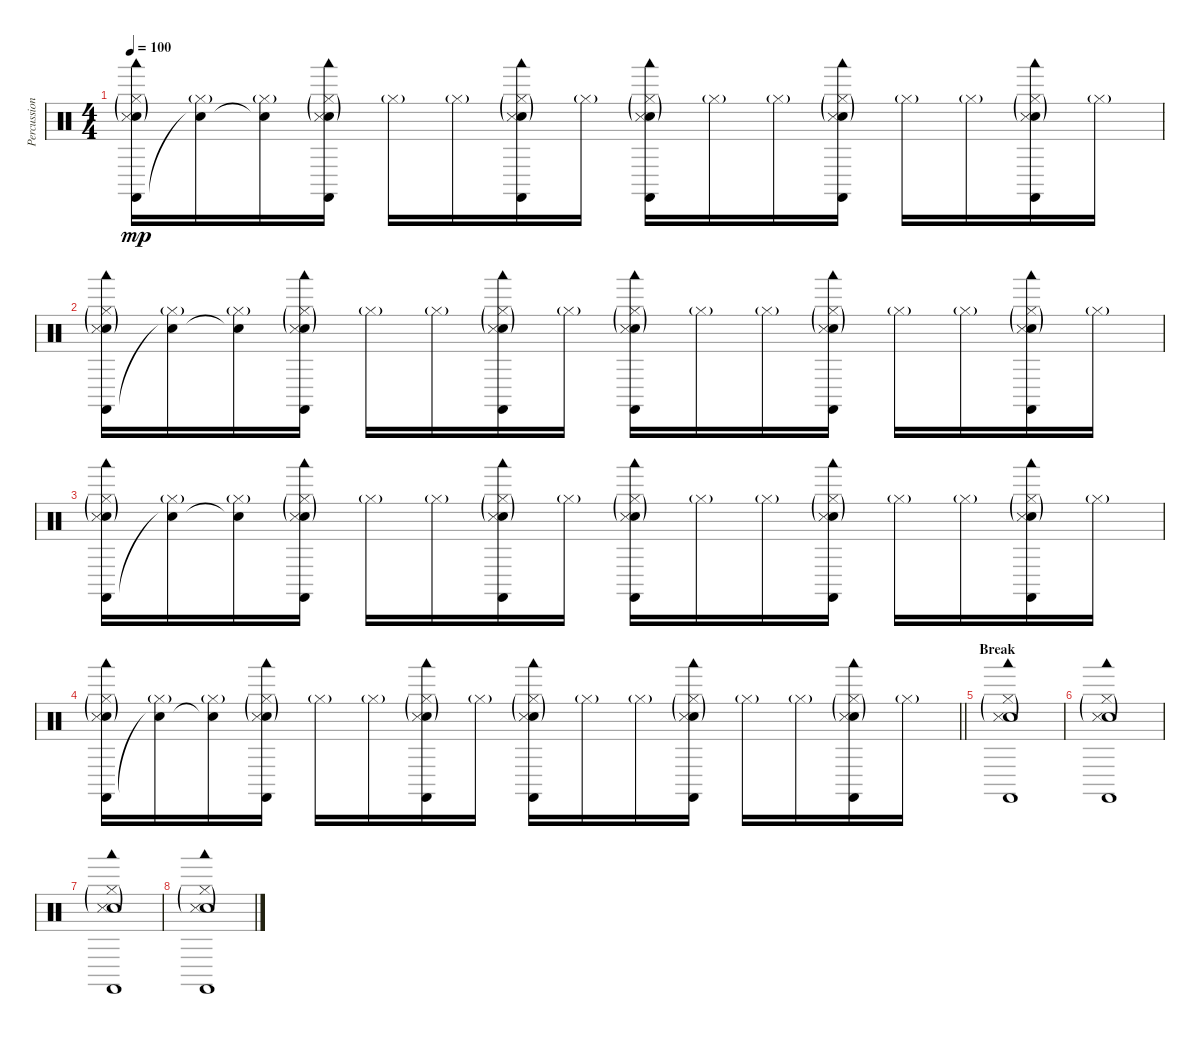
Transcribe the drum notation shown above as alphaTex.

\track ("Percussion" "Percussion") {instrument percussion}
\staff {score}
\articulation defaults
\ts (4 4)
\tempo 100
\clef neutral
\ks c
("Hi-Hat (closed)"{g} "Castanets (hit)" "Woodblock low (hit)" "Electric Snare (hit)"{g} "Metronome (hit)"{g}).16{dy mp} ("Hi-Hat (closed)"{g} "Snare (hit)"{t}).16 ("Hi-Hat (closed)"{g} "Snare (hit)"{t}).16 ("Hi-Hat (closed)"{g} "Castanets (hit)" "Woodblock low (hit)" "Electric Snare (hit)"{g} "Metronome (hit)"{g}).16 "Hi-Hat (closed)"{g}.16 "Hi-Hat (closed)"{g}.16 ("Hi-Hat (closed)"{g} "Castanets (hit)" "Woodblock low (hit)" "Electric Snare (hit)"{g} "Metronome (hit)"{g}).16 "Hi-Hat (closed)"{g}.16 ("Hi-Hat (closed)"{g} "Castanets (hit)" "Woodblock low (hit)" "Electric Snare (hit)"{g} "Metronome (hit)"{g}).16 "Hi-Hat (closed)"{g}.16 "Hi-Hat (closed)"{g}.16 ("Hi-Hat (closed)"{g} "Castanets (hit)" "Woodblock low (hit)" "Electric Snare (hit)"{g} "Metronome (hit)"{g}).16 "Hi-Hat (closed)"{g}.16 "Hi-Hat (closed)"{g}.16 ("Hi-Hat (closed)"{g} "Castanets (hit)" "Woodblock low (hit)" "Electric Snare (hit)"{g} "Metronome (hit)"{g}).16 "Hi-Hat (closed)"{g}.16 |
("Hi-Hat (closed)"{g} "Castanets (hit)" "Woodblock low (hit)" "Electric Snare (hit)"{g} "Metronome (hit)"{g}).16 ("Hi-Hat (closed)"{g} "Snare (hit)"{t}).16 ("Hi-Hat (closed)"{g} "Snare (hit)"{t}).16 ("Hi-Hat (closed)"{g} "Castanets (hit)" "Woodblock low (hit)" "Electric Snare (hit)"{g} "Metronome (hit)"{g}).16 "Hi-Hat (closed)"{g}.16 "Hi-Hat (closed)"{g}.16 ("Hi-Hat (closed)"{g} "Castanets (hit)" "Woodblock low (hit)" "Electric Snare (hit)"{g} "Metronome (hit)"{g}).16 "Hi-Hat (closed)"{g}.16 ("Hi-Hat (closed)"{g} "Castanets (hit)" "Woodblock low (hit)" "Electric Snare (hit)"{g} "Metronome (hit)"{g}).16 "Hi-Hat (closed)"{g}.16 "Hi-Hat (closed)"{g}.16 ("Hi-Hat (closed)"{g} "Castanets (hit)" "Woodblock low (hit)" "Electric Snare (hit)"{g} "Metronome (hit)"{g}).16 "Hi-Hat (closed)"{g}.16 "Hi-Hat (closed)"{g}.16 ("Hi-Hat (closed)"{g} "Castanets (hit)" "Woodblock low (hit)" "Electric Snare (hit)"{g} "Metronome (hit)"{g}).16 "Hi-Hat (closed)"{g}.16 |
("Hi-Hat (closed)"{g} "Castanets (hit)" "Woodblock low (hit)" "Electric Snare (hit)"{g} "Metronome (hit)"{g}).16 ("Hi-Hat (closed)"{g} "Snare (hit)"{t}).16 ("Hi-Hat (closed)"{g} "Snare (hit)"{t}).16 ("Hi-Hat (closed)"{g} "Castanets (hit)" "Woodblock low (hit)" "Electric Snare (hit)"{g} "Metronome (hit)"{g}).16 "Hi-Hat (closed)"{g}.16 "Hi-Hat (closed)"{g}.16 ("Hi-Hat (closed)"{g} "Castanets (hit)" "Woodblock low (hit)" "Electric Snare (hit)"{g} "Metronome (hit)"{g}).16 "Hi-Hat (closed)"{g}.16 ("Hi-Hat (closed)"{g} "Castanets (hit)" "Woodblock low (hit)" "Electric Snare (hit)"{g} "Metronome (hit)"{g}).16 "Hi-Hat (closed)"{g}.16 "Hi-Hat (closed)"{g}.16 ("Hi-Hat (closed)"{g} "Castanets (hit)" "Woodblock low (hit)" "Electric Snare (hit)"{g} "Metronome (hit)"{g}).16 "Hi-Hat (closed)"{g}.16 "Hi-Hat (closed)"{g}.16 ("Hi-Hat (closed)"{g} "Castanets (hit)" "Woodblock low (hit)" "Electric Snare (hit)"{g} "Metronome (hit)"{g}).16 "Hi-Hat (closed)"{g}.16 |
\barLineRight lightlight
("Hi-Hat (closed)"{g} "Castanets (hit)" "Woodblock low (hit)" "Electric Snare (hit)"{g} "Metronome (hit)"{g}).16 ("Hi-Hat (closed)"{g} "Snare (hit)"{t}).16 ("Hi-Hat (closed)"{g} "Snare (hit)"{t}).16 ("Hi-Hat (closed)"{g} "Castanets (hit)" "Woodblock low (hit)" "Electric Snare (hit)"{g} "Metronome (hit)"{g}).16 "Hi-Hat (closed)"{g}.16 "Hi-Hat (closed)"{g}.16 ("Hi-Hat (closed)"{g} "Castanets (hit)" "Woodblock low (hit)" "Electric Snare (hit)"{g} "Metronome (hit)"{g}).16 "Hi-Hat (closed)"{g}.16 ("Hi-Hat (closed)"{g} "Castanets (hit)" "Woodblock low (hit)" "Electric Snare (hit)"{g} "Metronome (hit)"{g}).16 "Hi-Hat (closed)"{g}.16 "Hi-Hat (closed)"{g}.16 ("Hi-Hat (closed)"{g} "Castanets (hit)" "Woodblock low (hit)" "Electric Snare (hit)"{g} "Metronome (hit)"{g}).16 "Hi-Hat (closed)"{g}.16 "Hi-Hat (closed)"{g}.16 ("Hi-Hat (closed)"{g} "Castanets (hit)" "Woodblock low (hit)" "Electric Snare (hit)"{g} "Metronome (hit)"{g}).16 "Hi-Hat (closed)"{g}.16 |
\section ("" "Break")
("Hi-Hat (closed)"{g} "Castanets (hit)" "Woodblock low (hit)" "Electric Snare (hit)"{g} "Metronome (hit)"{g}).1 |
("Hi-Hat (closed)"{g} "Castanets (hit)" "Woodblock low (hit)" "Electric Snare (hit)"{g} "Metronome (hit)"{g}).1 |
("Hi-Hat (closed)"{g} "Castanets (hit)" "Woodblock low (hit)" "Electric Snare (hit)"{g} "Metronome (hit)"{g}).1 |
("Hi-Hat (closed)"{g} "Castanets (hit)" "Woodblock low (hit)" "Electric Snare (hit)"{g} "Metronome (hit)"{g}).1
